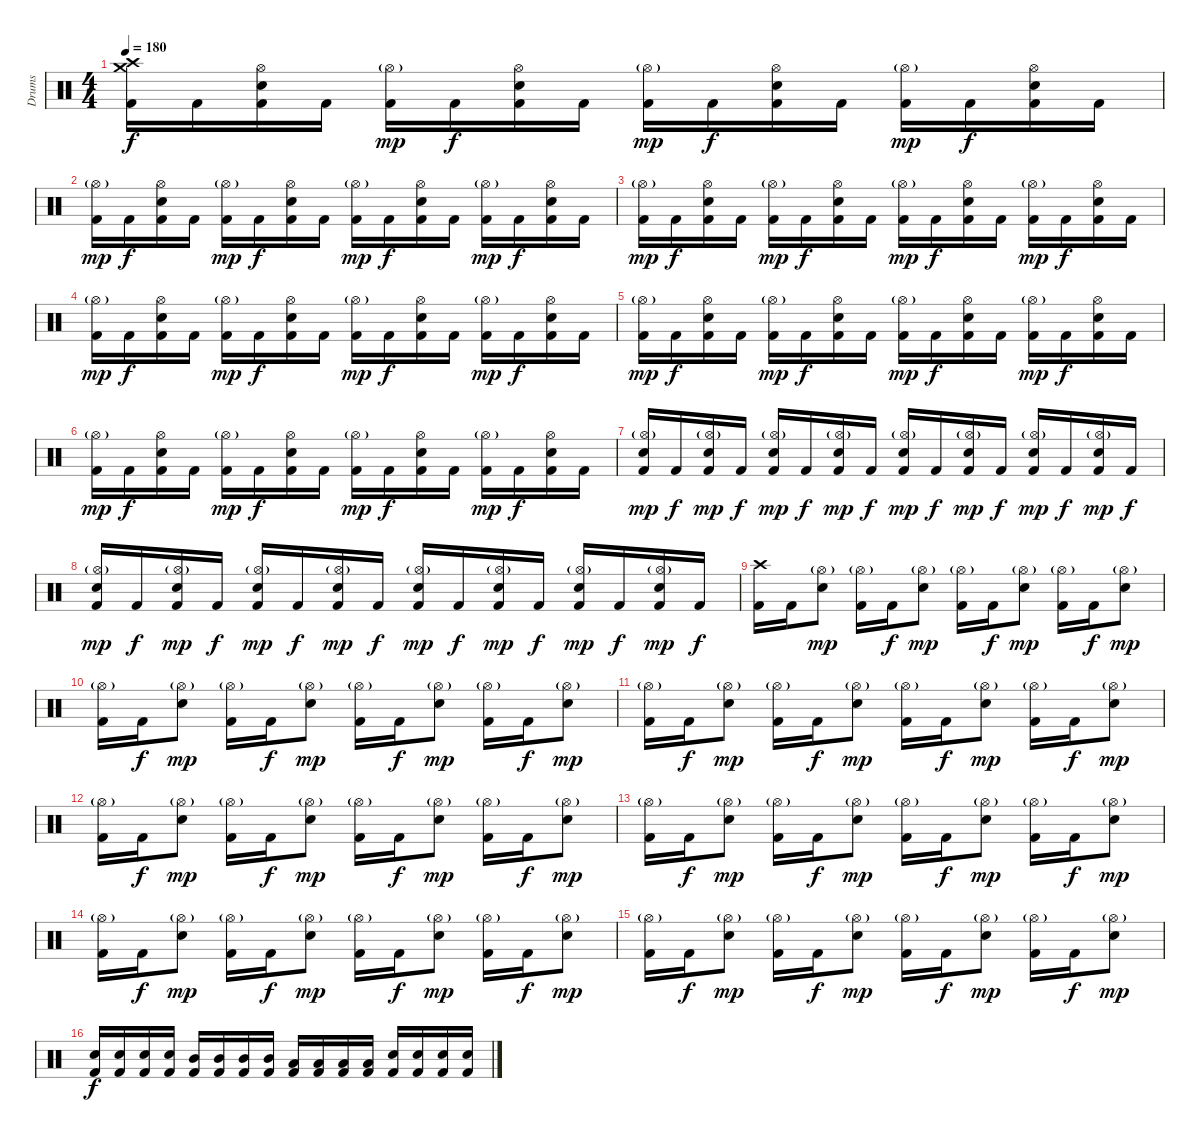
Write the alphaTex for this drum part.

\track ("Drums" "Drums") {instrument percussion}
\staff {score}
\articulation defaults
\ts (4 4)
\tempo 180
\clef neutral
\ks c
("Crash medium (hit)" "Crash high (hit)" "Kick (hit) 2").16{dy f} "Kick (hit) 2".16 ("Hi-Hat (open)" "Electric Snare (hit)" "Kick (hit) 2").16 "Kick (hit) 2".16 ("Hi-Hat (open)"{g} "Kick (hit) 2").16{dy mp} "Kick (hit) 2".16{dy f} ("Hi-Hat (open)" "Electric Snare (hit)" "Kick (hit) 2").16 "Kick (hit) 2".16 ("Hi-Hat (open)"{g} "Kick (hit) 2").16{dy mp} "Kick (hit) 2".16{dy f} ("Hi-Hat (open)" "Electric Snare (hit)" "Kick (hit) 2").16 "Kick (hit) 2".16 ("Hi-Hat (open)"{g} "Kick (hit) 2").16{dy mp} "Kick (hit) 2".16{dy f} ("Hi-Hat (open)" "Electric Snare (hit)" "Kick (hit) 2").16 "Kick (hit) 2".16 |
("Hi-Hat (open)"{g} "Kick (hit) 2").16{dy mp} "Kick (hit) 2".16{dy f} ("Hi-Hat (open)" "Electric Snare (hit)" "Kick (hit) 2").16 "Kick (hit) 2".16 ("Hi-Hat (open)"{g} "Kick (hit) 2").16{dy mp} "Kick (hit) 2".16{dy f} ("Hi-Hat (open)" "Electric Snare (hit)" "Kick (hit) 2").16 "Kick (hit) 2".16 ("Hi-Hat (open)"{g} "Kick (hit) 2").16{dy mp} "Kick (hit) 2".16{dy f} ("Hi-Hat (open)" "Electric Snare (hit)" "Kick (hit) 2").16 "Kick (hit) 2".16 ("Hi-Hat (open)"{g} "Kick (hit) 2").16{dy mp} "Kick (hit) 2".16{dy f} ("Hi-Hat (open)" "Electric Snare (hit)" "Kick (hit) 2").16 "Kick (hit) 2".16 |
("Hi-Hat (open)"{g} "Kick (hit) 2").16{dy mp} "Kick (hit) 2".16{dy f} ("Hi-Hat (open)" "Electric Snare (hit)" "Kick (hit) 2").16 "Kick (hit) 2".16 ("Hi-Hat (open)"{g} "Kick (hit) 2").16{dy mp} "Kick (hit) 2".16{dy f} ("Hi-Hat (open)" "Electric Snare (hit)" "Kick (hit) 2").16 "Kick (hit) 2".16 ("Hi-Hat (open)"{g} "Kick (hit) 2").16{dy mp} "Kick (hit) 2".16{dy f} ("Hi-Hat (open)" "Electric Snare (hit)" "Kick (hit) 2").16 "Kick (hit) 2".16 ("Hi-Hat (open)"{g} "Kick (hit) 2").16{dy mp} "Kick (hit) 2".16{dy f} ("Hi-Hat (open)" "Electric Snare (hit)" "Kick (hit) 2").16 "Kick (hit) 2".16 |
("Hi-Hat (open)"{g} "Kick (hit) 2").16{dy mp} "Kick (hit) 2".16{dy f} ("Hi-Hat (open)" "Electric Snare (hit)" "Kick (hit) 2").16 "Kick (hit) 2".16 ("Hi-Hat (open)"{g} "Kick (hit) 2").16{dy mp} "Kick (hit) 2".16{dy f} ("Hi-Hat (open)" "Electric Snare (hit)" "Kick (hit) 2").16 "Kick (hit) 2".16 ("Hi-Hat (open)"{g} "Kick (hit) 2").16{dy mp} "Kick (hit) 2".16{dy f} ("Hi-Hat (open)" "Electric Snare (hit)" "Kick (hit) 2").16 "Kick (hit) 2".16 ("Hi-Hat (open)"{g} "Kick (hit) 2").16{dy mp} "Kick (hit) 2".16{dy f} ("Hi-Hat (open)" "Electric Snare (hit)" "Kick (hit) 2").16 "Kick (hit) 2".16 |
("Hi-Hat (open)"{g} "Kick (hit) 2").16{dy mp} "Kick (hit) 2".16{dy f} ("Hi-Hat (open)" "Electric Snare (hit)" "Kick (hit) 2").16 "Kick (hit) 2".16 ("Hi-Hat (open)"{g} "Kick (hit) 2").16{dy mp} "Kick (hit) 2".16{dy f} ("Hi-Hat (open)" "Electric Snare (hit)" "Kick (hit) 2").16 "Kick (hit) 2".16 ("Hi-Hat (open)"{g} "Kick (hit) 2").16{dy mp} "Kick (hit) 2".16{dy f} ("Hi-Hat (open)" "Electric Snare (hit)" "Kick (hit) 2").16 "Kick (hit) 2".16 ("Hi-Hat (open)"{g} "Kick (hit) 2").16{dy mp} "Kick (hit) 2".16{dy f} ("Hi-Hat (open)" "Electric Snare (hit)" "Kick (hit) 2").16 "Kick (hit) 2".16 |
("Hi-Hat (open)"{g} "Kick (hit) 2").16{dy mp} "Kick (hit) 2".16{dy f} ("Hi-Hat (open)" "Electric Snare (hit)" "Kick (hit) 2").16 "Kick (hit) 2".16 ("Hi-Hat (open)"{g} "Kick (hit) 2").16{dy mp} "Kick (hit) 2".16{dy f} ("Hi-Hat (open)" "Electric Snare (hit)" "Kick (hit) 2").16 "Kick (hit) 2".16 ("Hi-Hat (open)"{g} "Kick (hit) 2").16{dy mp} "Kick (hit) 2".16{dy f} ("Hi-Hat (open)" "Electric Snare (hit)" "Kick (hit) 2").16 "Kick (hit) 2".16 ("Hi-Hat (open)"{g} "Kick (hit) 2").16{dy mp} "Kick (hit) 2".16{dy f} ("Hi-Hat (open)" "Electric Snare (hit)" "Kick (hit) 2").16 "Kick (hit) 2".16 |
("Hi-Hat (open)"{g} "Electric Snare (hit)" "Kick (hit) 2").16{dy mp} "Kick (hit) 2".16{dy f} ("Hi-Hat (open)"{g} "Electric Snare (hit)" "Kick (hit) 2").16{dy mp} "Kick (hit) 2".16{dy f} ("Hi-Hat (open)"{g} "Electric Snare (hit)" "Kick (hit) 2").16{dy mp} "Kick (hit) 2".16{dy f} ("Hi-Hat (open)"{g} "Electric Snare (hit)" "Kick (hit) 2").16{dy mp} "Kick (hit) 2".16{dy f} ("Hi-Hat (open)"{g} "Electric Snare (hit)" "Kick (hit) 2").16{dy mp} "Kick (hit) 2".16{dy f} ("Hi-Hat (open)"{g} "Electric Snare (hit)" "Kick (hit) 2").16{dy mp} "Kick (hit) 2".16{dy f} ("Hi-Hat (open)"{g} "Electric Snare (hit)" "Kick (hit) 2").16{dy mp} "Kick (hit) 2".16{dy f} ("Hi-Hat (open)"{g} "Electric Snare (hit)" "Kick (hit) 2").16{dy mp} "Kick (hit) 2".16{dy f} |
("Hi-Hat (open)"{g} "Electric Snare (hit)" "Kick (hit) 2").16{dy mp} "Kick (hit) 2".16{dy f} ("Hi-Hat (open)"{g} "Electric Snare (hit)" "Kick (hit) 2").16{dy mp} "Kick (hit) 2".16{dy f} ("Hi-Hat (open)"{g} "Electric Snare (hit)" "Kick (hit) 2").16{dy mp} "Kick (hit) 2".16{dy f} ("Hi-Hat (open)"{g} "Electric Snare (hit)" "Kick (hit) 2").16{dy mp} "Kick (hit) 2".16{dy f} ("Hi-Hat (open)"{g} "Electric Snare (hit)" "Kick (hit) 2").16{dy mp} "Kick (hit) 2".16{dy f} ("Hi-Hat (open)"{g} "Electric Snare (hit)" "Kick (hit) 2").16{dy mp} "Kick (hit) 2".16{dy f} ("Hi-Hat (open)"{g} "Electric Snare (hit)" "Kick (hit) 2").16{dy mp} "Kick (hit) 2".16{dy f} ("Hi-Hat (open)"{g} "Electric Snare (hit)" "Kick (hit) 2").16{dy mp} "Kick (hit) 2".16{dy f} |
("Crash high (hit)" "Kick (hit) 2").16 "Kick (hit) 2".16 ("Hi-Hat (open)"{g} "Electric Snare (hit)").8{dy mp} ("Hi-Hat (open)"{g} "Kick (hit) 2").16 "Kick (hit) 2".16{dy f} ("Hi-Hat (open)"{g} "Electric Snare (hit)").8{dy mp} ("Hi-Hat (open)"{g} "Kick (hit) 2").16 "Kick (hit) 2".16{dy f} ("Hi-Hat (open)"{g} "Electric Snare (hit)").8{dy mp} ("Hi-Hat (open)"{g} "Kick (hit) 2").16 "Kick (hit) 2".16{dy f} ("Hi-Hat (open)"{g} "Electric Snare (hit)").8{dy mp} |
("Hi-Hat (open)"{g} "Kick (hit) 2").16 "Kick (hit) 2".16{dy f} ("Hi-Hat (open)"{g} "Electric Snare (hit)").8{dy mp} ("Hi-Hat (open)"{g} "Kick (hit) 2").16 "Kick (hit) 2".16{dy f} ("Hi-Hat (open)"{g} "Electric Snare (hit)").8{dy mp} ("Hi-Hat (open)"{g} "Kick (hit) 2").16 "Kick (hit) 2".16{dy f} ("Hi-Hat (open)"{g} "Electric Snare (hit)").8{dy mp} ("Hi-Hat (open)"{g} "Kick (hit) 2").16 "Kick (hit) 2".16{dy f} ("Hi-Hat (open)"{g} "Electric Snare (hit)").8{dy mp} |
("Hi-Hat (open)"{g} "Kick (hit) 2").16 "Kick (hit) 2".16{dy f} ("Hi-Hat (open)"{g} "Electric Snare (hit)").8{dy mp} ("Hi-Hat (open)"{g} "Kick (hit) 2").16 "Kick (hit) 2".16{dy f} ("Hi-Hat (open)"{g} "Electric Snare (hit)").8{dy mp} ("Hi-Hat (open)"{g} "Kick (hit) 2").16 "Kick (hit) 2".16{dy f} ("Hi-Hat (open)"{g} "Electric Snare (hit)").8{dy mp} ("Hi-Hat (open)"{g} "Kick (hit) 2").16 "Kick (hit) 2".16{dy f} ("Hi-Hat (open)"{g} "Electric Snare (hit)").8{dy mp} |
("Hi-Hat (open)"{g} "Kick (hit) 2").16 "Kick (hit) 2".16{dy f} ("Hi-Hat (open)"{g} "Electric Snare (hit)").8{dy mp} ("Hi-Hat (open)"{g} "Kick (hit) 2").16 "Kick (hit) 2".16{dy f} ("Hi-Hat (open)"{g} "Electric Snare (hit)").8{dy mp} ("Hi-Hat (open)"{g} "Kick (hit) 2").16 "Kick (hit) 2".16{dy f} ("Hi-Hat (open)"{g} "Electric Snare (hit)").8{dy mp} ("Hi-Hat (open)"{g} "Kick (hit) 2").16 "Kick (hit) 2".16{dy f} ("Hi-Hat (open)"{g} "Electric Snare (hit)").8{dy mp} |
("Hi-Hat (open)"{g} "Kick (hit) 2").16 "Kick (hit) 2".16{dy f} ("Hi-Hat (open)"{g} "Electric Snare (hit)").8{dy mp} ("Hi-Hat (open)"{g} "Kick (hit) 2").16 "Kick (hit) 2".16{dy f} ("Hi-Hat (open)"{g} "Electric Snare (hit)").8{dy mp} ("Hi-Hat (open)"{g} "Kick (hit) 2").16 "Kick (hit) 2".16{dy f} ("Hi-Hat (open)"{g} "Electric Snare (hit)").8{dy mp} ("Hi-Hat (open)"{g} "Kick (hit) 2").16 "Kick (hit) 2".16{dy f} ("Hi-Hat (open)"{g} "Electric Snare (hit)").8{dy mp} |
("Hi-Hat (open)"{g} "Kick (hit) 2").16 "Kick (hit) 2".16{dy f} ("Hi-Hat (open)"{g} "Electric Snare (hit)").8{dy mp} ("Hi-Hat (open)"{g} "Kick (hit) 2").16 "Kick (hit) 2".16{dy f} ("Hi-Hat (open)"{g} "Electric Snare (hit)").8{dy mp} ("Hi-Hat (open)"{g} "Kick (hit) 2").16 "Kick (hit) 2".16{dy f} ("Hi-Hat (open)"{g} "Electric Snare (hit)").8{dy mp} ("Hi-Hat (open)"{g} "Kick (hit) 2").16 "Kick (hit) 2".16{dy f} ("Hi-Hat (open)"{g} "Electric Snare (hit)").8{dy mp} |
("Hi-Hat (open)"{g} "Kick (hit) 2").16 "Kick (hit) 2".16{dy f} ("Hi-Hat (open)"{g} "Electric Snare (hit)").8{dy mp} ("Hi-Hat (open)"{g} "Kick (hit) 2").16 "Kick (hit) 2".16{dy f} ("Hi-Hat (open)"{g} "Electric Snare (hit)").8{dy mp} ("Hi-Hat (open)"{g} "Kick (hit) 2").16 "Kick (hit) 2".16{dy f} ("Hi-Hat (open)"{g} "Electric Snare (hit)").8{dy mp} ("Hi-Hat (open)"{g} "Kick (hit) 2").16 "Kick (hit) 2".16{dy f} ("Hi-Hat (open)"{g} "Electric Snare (hit)").8{dy mp} |
("Electric Snare (hit)" "Kick (hit) 2").16{dy f} ("Electric Snare (hit)" "Kick (hit) 2").16 ("Electric Snare (hit)" "Kick (hit) 2").16 ("Electric Snare (hit)" "Kick (hit) 2").16 ("Mid Tom (hit)" "Kick (hit) 2").16 ("Mid Tom (hit)" "Kick (hit) 2").16 ("Mid Tom (hit)" "Kick (hit) 2").16 ("Mid Tom (hit)" "Kick (hit) 2").16 ("Low Tom (hit)" "Kick (hit) 2").16 ("Low Tom (hit)" "Kick (hit) 2").16 ("Low Tom (hit)" "Kick (hit) 2").16 ("Low Tom (hit)" "Kick (hit) 2").16 ("Electric Snare (hit)" "Kick (hit) 2").16 ("Electric Snare (hit)" "Kick (hit) 2").16 ("Electric Snare (hit)" "Kick (hit) 2").16 ("Electric Snare (hit)" "Kick (hit) 2").16
